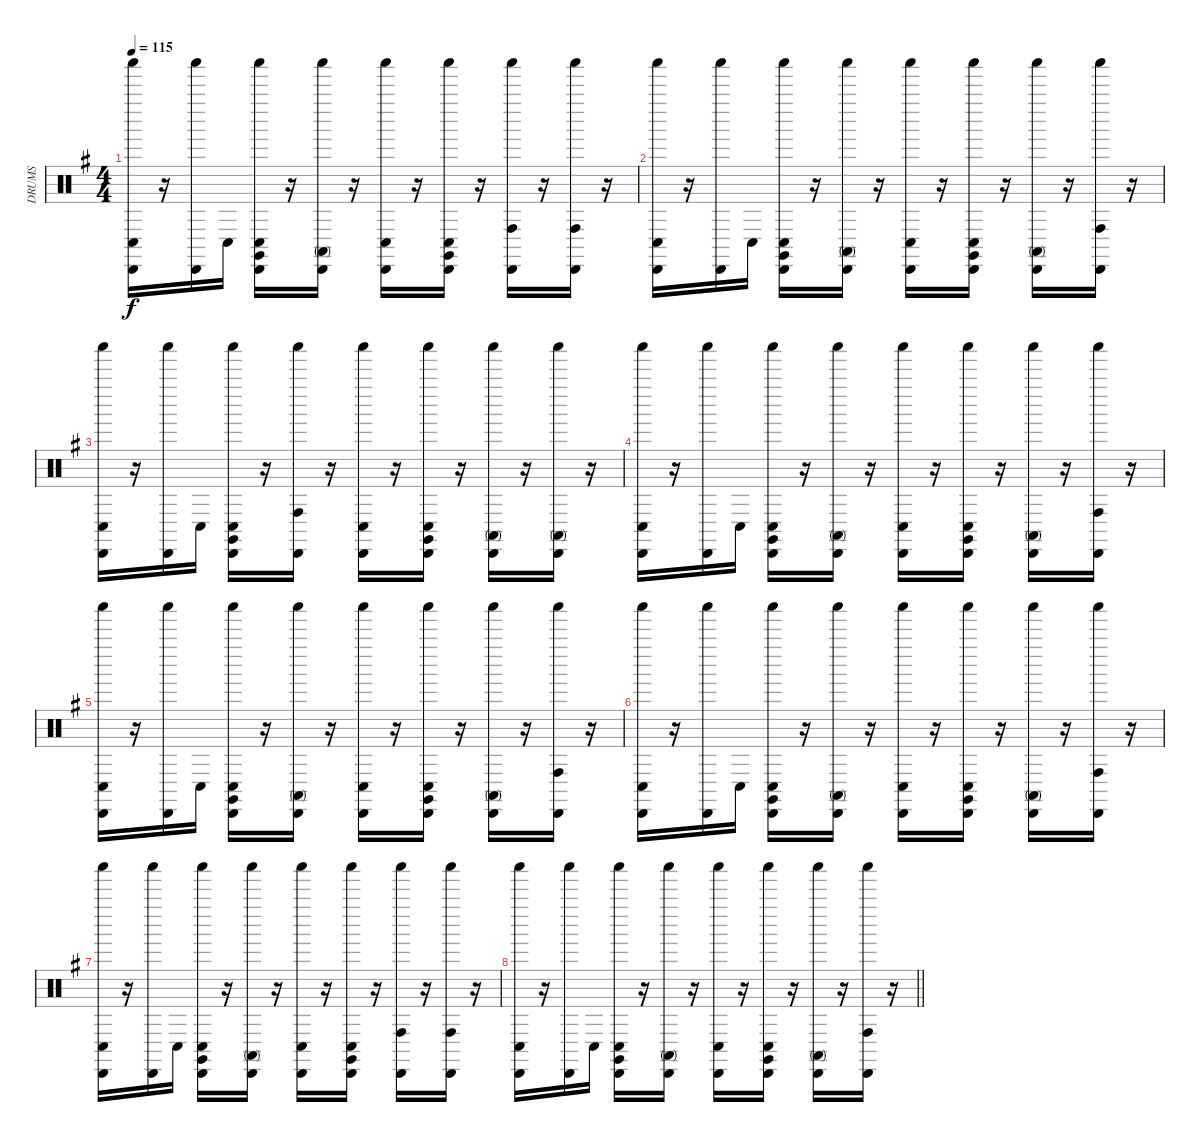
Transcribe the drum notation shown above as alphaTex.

\track ("DRUMS" "DRUMS") {instrument percussion}
\staff {score}
\articulation defaults
\ts (4 4)
\tempo 115
\clef neutral
\ks eminor
("Shaker (hit)" "Conga low (hit)" "Cabasa (hit)").16{dy f} r.16 ("Cabasa (hit)" "Shaker (hit)").16 "Conga low (hit)".16 ("Cabasa (hit)" "Shaker (hit)" "Conga low (hit)" "Claves (hit)").16 r.16 ("Conga high (mute)" "Shaker (hit)" "Cabasa (hit)").16 r.16 ("Conga low (hit)" "Cabasa (hit)" "Shaker (hit)").16 r.16 ("Cabasa (hit)" "Shaker (hit)" "Conga low (hit)" "Claves (hit)").16 r.16 ("Conga high (hit)" "Shaker (hit)" "Cabasa (hit)").16 r.16 ("Shaker (hit)" "Conga high (hit)" "Cabasa (hit)").16 r.16 |
("Conga low (hit)" "Shaker (hit)" "Cabasa (hit)").16 r.16 ("Cabasa (hit)" "Shaker (hit)").16 "Conga low (hit)".16 ("Conga low (hit)" "Cabasa (hit)" "Claves (hit)" "Shaker (hit)").16 r.16 ("Conga high (mute)" "Shaker (hit)" "Cabasa (hit)").16 r.16 ("Shaker (hit)" "Conga low (hit)" "Cabasa (hit)").16 r.16 ("Cabasa (hit)" "Claves (hit)" "Conga low (hit)" "Shaker (hit)").16 r.16 ("Conga high (mute)" "Shaker (hit)" "Cabasa (hit)").16 r.16 ("Shaker (hit)" "Cabasa (hit)" "Conga high (hit)").16 r.16 |
("Conga low (hit)" "Cabasa (hit)" "Shaker (hit)").16 r.16 ("Cabasa (hit)" "Shaker (hit)").16 "Conga low (hit)".16 ("Claves (hit)" "Shaker (hit)" "Cabasa (hit)" "Conga low (hit)").16 r.16 ("Conga high (hit)" "Cabasa (hit)" "Shaker (hit)").16 r.16 ("Cabasa (hit)" "Conga low (hit)" "Shaker (hit)").16 r.16 ("Shaker (hit)" "Conga low (hit)" "Claves (hit)" "Cabasa (hit)").16 r.16 ("Shaker (hit)" "Cabasa (hit)" "Conga high (mute)").16 r.16 ("Conga high (mute)" "Cabasa (hit)" "Shaker (hit)").16 r.16 |
("Conga low (hit)" "Shaker (hit)" "Cabasa (hit)").16 r.16 ("Shaker (hit)" "Cabasa (hit)").16 "Conga low (hit)".16 ("Cabasa (hit)" "Claves (hit)" "Conga low (hit)" "Shaker (hit)").16 r.16 ("Shaker (hit)" "Conga high (mute)" "Cabasa (hit)").16 r.16 ("Conga low (hit)" "Shaker (hit)" "Cabasa (hit)").16 r.16 ("Claves (hit)" "Cabasa (hit)" "Conga low (hit)" "Shaker (hit)").16 r.16 ("Conga high (mute)" "Cabasa (hit)" "Shaker (hit)").16 r.16 ("Cabasa (hit)" "Conga high (hit)" "Shaker (hit)").16 r.16 |
("Shaker (hit)" "Conga low (hit)" "Cabasa (hit)").16 r.16 ("Cabasa (hit)" "Shaker (hit)").16 "Conga low (hit)".16 ("Cabasa (hit)" "Conga low (hit)" "Shaker (hit)" "Claves (hit)").16 r.16 ("Shaker (hit)" "Conga high (mute)" "Cabasa (hit)").16 r.16 ("Shaker (hit)" "Conga low (hit)" "Cabasa (hit)").16 r.16 ("Conga low (hit)" "Cabasa (hit)" "Claves (hit)" "Shaker (hit)").16 r.16 ("Conga high (mute)" "Cabasa (hit)" "Shaker (hit)").16 r.16 ("Cabasa (hit)" "Shaker (hit)" "Conga high (hit)").16 r.16 |
("Shaker (hit)" "Cabasa (hit)" "Conga low (hit)").16 r.16 ("Shaker (hit)" "Cabasa (hit)").16 "Conga low (hit)".16 ("Cabasa (hit)" "Conga low (hit)" "Shaker (hit)" "Claves (hit)").16 r.16 ("Shaker (hit)" "Conga high (mute)" "Cabasa (hit)").16 r.16 ("Cabasa (hit)" "Conga low (hit)" "Shaker (hit)").16 r.16 ("Conga low (hit)" "Claves (hit)" "Shaker (hit)" "Cabasa (hit)").16 r.16 ("Shaker (hit)" "Cabasa (hit)" "Conga high (mute)").16 r.16 ("Shaker (hit)" "Cabasa (hit)" "Conga high (hit)").16 r.16 |
("Conga low (hit)" "Cabasa (hit)" "Shaker (hit)").16 r.16 ("Shaker (hit)" "Cabasa (hit)").16 "Conga low (hit)".16 ("Shaker (hit)" "Conga low (hit)" "Cabasa (hit)" "Claves (hit)").16 r.16 ("Cabasa (hit)" "Conga high (mute)" "Shaker (hit)").16 r.16 ("Shaker (hit)" "Cabasa (hit)" "Conga low (hit)").16 r.16 ("Claves (hit)" "Cabasa (hit)" "Conga low (hit)" "Shaker (hit)").16 r.16 ("Cabasa (hit)" "Conga high (hit)" "Shaker (hit)").16 r.16 ("Cabasa (hit)" "Shaker (hit)" "Conga high (hit)").16 r.16 |
\barLineRight lightlight
("Shaker (hit)" "Conga low (hit)" "Cabasa (hit)").16 r.16 ("Cabasa (hit)" "Shaker (hit)").16 "Conga low (hit)".16 ("Cabasa (hit)" "Conga low (hit)" "Shaker (hit)" "Claves (hit)").16 r.16 ("Cabasa (hit)" "Shaker (hit)" "Conga high (mute)").16 r.16 ("Cabasa (hit)" "Shaker (hit)" "Conga low (hit)").16 r.16 ("Conga low (hit)" "Claves (hit)" "Shaker (hit)" "Cabasa (hit)").16 r.16 ("Cabasa (hit)" "Conga high (mute)" "Shaker (hit)").16 r.16 ("Shaker (hit)" "Conga high (hit)" "Cabasa (hit)").16 r.16
